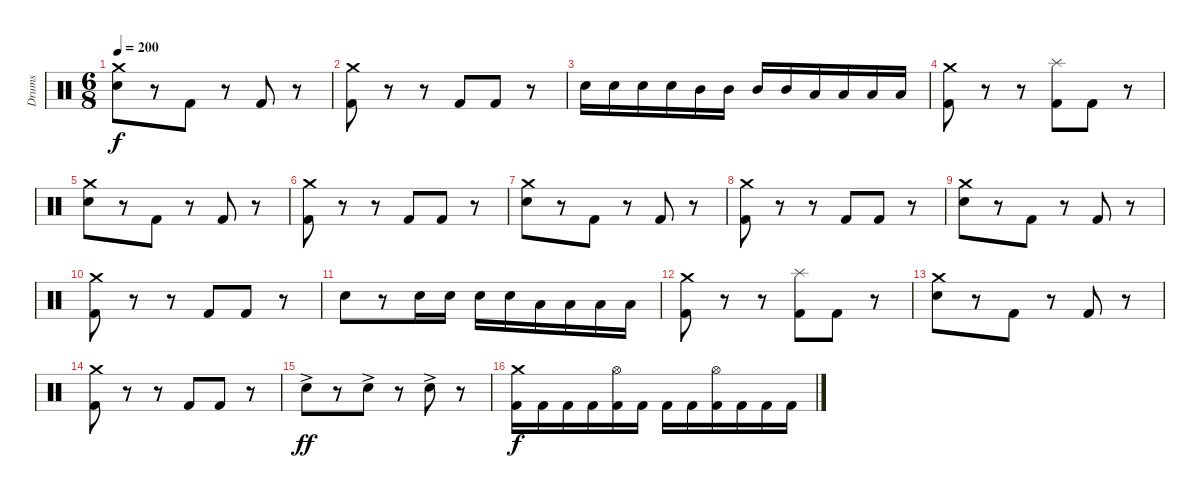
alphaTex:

\track ("Drums" "Drums") {instrument percussion}
\staff {score}
\articulation defaults
\ts (6 8)
\tempo 200
\clef neutral
\ks c
("Crash medium (hit)" "Electric Snare (hit)").8{dy f} r.8 "Kick (hit) 2".8 r.8 "Kick (hit) 2".8 r.8 |
("Crash medium (hit)" "Kick (hit) 2").8 r.8 r.8 "Kick (hit) 2".8 "Kick (hit) 2".8 r.8 |
"Electric Snare (hit)".16 "Electric Snare (hit)".16 "Electric Snare (hit)".16 "Electric Snare (hit)".16 "Mid Tom (hit)".16 "Mid Tom (hit)".16 "Mid Tom (hit)".16 "Mid Tom (hit)".16 "Low Tom (hit)".16 "Low Tom (hit)".16 "Low Tom (hit)".16 "Low Tom (hit)".16 |
("Crash medium (hit)" "Kick (hit) 2").8 r.8 r.8 ("Splash (hit)" "Kick (hit) 2").8 "Kick (hit) 2".8 r.8 |
("Crash medium (hit)" "Electric Snare (hit)").8 r.8 "Kick (hit) 2".8 r.8 "Kick (hit) 2".8 r.8 |
("Crash medium (hit)" "Kick (hit) 2").8 r.8 r.8 "Kick (hit) 2".8 "Kick (hit) 2".8 r.8 |
("Crash medium (hit)" "Electric Snare (hit)").8 r.8 "Kick (hit) 2".8 r.8 "Kick (hit) 2".8 r.8 |
("Crash medium (hit)" "Kick (hit) 2").8 r.8 r.8 "Kick (hit) 2".8 "Kick (hit) 2".8 r.8 |
("Crash medium (hit)" "Electric Snare (hit)").8 r.8 "Kick (hit) 2".8 r.8 "Kick (hit) 2".8 r.8 |
("Crash medium (hit)" "Kick (hit) 2").8 r.8 r.8 "Kick (hit) 2".8 "Kick (hit) 2".8 r.8 |
"Electric Snare (hit)".8 r.8 "Electric Snare (hit)".16 "Electric Snare (hit)".16 "Electric Snare (hit)".16 "Electric Snare (hit)".16 "Low Tom (hit)".16 "Low Tom (hit)".16 "Low Tom (hit)".16 "Low Tom (hit)".16 |
("Crash medium (hit)" "Kick (hit) 2").8 r.8 r.8 ("Splash (hit)" "Kick (hit) 2").8 "Kick (hit) 2".8 r.8 |
("Crash medium (hit)" "Electric Snare (hit)").8 r.8 "Kick (hit) 2".8 r.8 "Kick (hit) 2".8 r.8 |
("Crash medium (hit)" "Kick (hit) 2").8 r.8 r.8 "Kick (hit) 2".8 "Kick (hit) 2".8 r.8 |
"Electric Snare (hit)"{ac}.8{dy ff} r.8 "Electric Snare (hit)"{ac}.8 r.8 "Electric Snare (hit)"{ac}.8 r.8 |
("Crash medium (hit)" "Kick (hit) 2").16{dy f} "Kick (hit) 2".16 "Kick (hit) 2".16 "Kick (hit) 2".16 ("Hi-Hat (open)" "Kick (hit) 2").16 "Kick (hit) 2".16 "Kick (hit) 2".16 "Kick (hit) 2".16 ("Hi-Hat (open)" "Kick (hit) 2").16 "Kick (hit) 2".16 "Kick (hit) 2".16 "Kick (hit) 2".16
